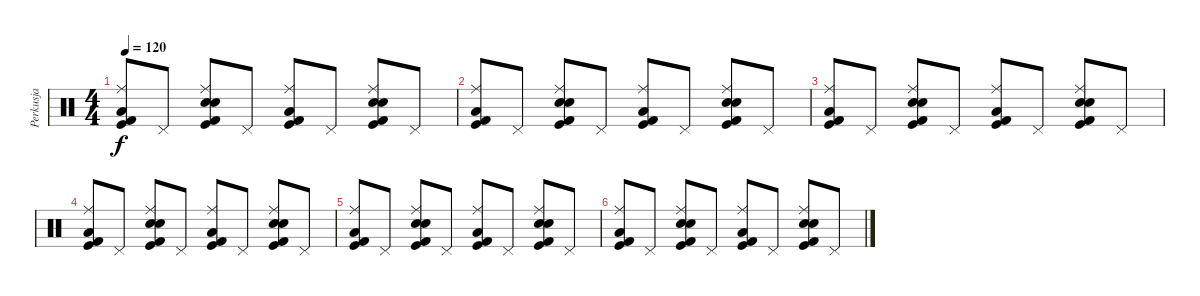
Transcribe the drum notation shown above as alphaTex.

\track ("Perkusja" "Perkusja") {instrument percussion}
\staff {score}
\articulation defaults
\ts (4 4)
\tempo 120
\clef neutral
\ks c
("Kick (hit) 2" "Kick (hit)" "Low Floor Tom (hit)" "Ride (middle)").8{dy f volume 8} "Pedal Hi-Hat (hit)".8 ("Kick (hit) 2" "Kick (hit)" "Snare (hit) 2" "Electric Snare (hit)" "Ride (middle)").8 "Pedal Hi-Hat (hit)".8 ("Kick (hit) 2" "Kick (hit)" "Low Floor Tom (hit)" "Ride (middle)").8{volume 6} "Pedal Hi-Hat (hit)".8 ("Kick (hit) 2" "Kick (hit)" "Snare (hit) 2" "Electric Snare (hit)" "Ride (middle)").8 "Pedal Hi-Hat (hit)".8 |
("Kick (hit) 2" "Kick (hit)" "Low Floor Tom (hit)" "Ride (middle)").8{volume 4} "Pedal Hi-Hat (hit)".8 ("Kick (hit) 2" "Kick (hit)" "Snare (hit) 2" "Electric Snare (hit)" "Ride (middle)").8 "Pedal Hi-Hat (hit)".8 ("Kick (hit) 2" "Kick (hit)" "Low Floor Tom (hit)" "Ride (middle)").8{volume 2} "Pedal Hi-Hat (hit)".8 ("Kick (hit) 2" "Kick (hit)" "Snare (hit) 2" "Electric Snare (hit)" "Ride (middle)").8 "Pedal Hi-Hat (hit)".8 |
("Kick (hit) 2" "Kick (hit)" "Low Floor Tom (hit)" "Ride (middle)").8{volume 0} "Pedal Hi-Hat (hit)".8 ("Kick (hit) 2" "Kick (hit)" "Snare (hit) 2" "Electric Snare (hit)" "Ride (middle)").8 "Pedal Hi-Hat (hit)".8 ("Kick (hit) 2" "Kick (hit)" "Low Floor Tom (hit)" "Ride (middle)").8 "Pedal Hi-Hat (hit)".8 ("Kick (hit) 2" "Kick (hit)" "Snare (hit) 2" "Electric Snare (hit)" "Ride (middle)").8 "Pedal Hi-Hat (hit)".8 |
("Kick (hit) 2" "Kick (hit)" "Low Floor Tom (hit)" "Ride (middle)").8 "Pedal Hi-Hat (hit)".8 ("Kick (hit) 2" "Kick (hit)" "Snare (hit) 2" "Electric Snare (hit)" "Ride (middle)").8 "Pedal Hi-Hat (hit)".8 ("Kick (hit) 2" "Kick (hit)" "Low Floor Tom (hit)" "Ride (middle)").8 "Pedal Hi-Hat (hit)".8 ("Kick (hit) 2" "Kick (hit)" "Snare (hit) 2" "Electric Snare (hit)" "Ride (middle)").8 "Pedal Hi-Hat (hit)".8 |
("Kick (hit) 2" "Kick (hit)" "Low Floor Tom (hit)" "Ride (middle)").8 "Pedal Hi-Hat (hit)".8 ("Kick (hit) 2" "Kick (hit)" "Snare (hit) 2" "Electric Snare (hit)" "Ride (middle)").8 "Pedal Hi-Hat (hit)".8 ("Kick (hit) 2" "Kick (hit)" "Low Floor Tom (hit)" "Ride (middle)").8 "Pedal Hi-Hat (hit)".8 ("Kick (hit) 2" "Kick (hit)" "Snare (hit) 2" "Electric Snare (hit)" "Ride (middle)").8 "Pedal Hi-Hat (hit)".8 |
("Kick (hit) 2" "Kick (hit)" "Low Floor Tom (hit)" "Ride (middle)").8 "Pedal Hi-Hat (hit)".8 ("Kick (hit) 2" "Kick (hit)" "Snare (hit) 2" "Electric Snare (hit)" "Ride (middle)").8 "Pedal Hi-Hat (hit)".8 ("Kick (hit) 2" "Kick (hit)" "Low Floor Tom (hit)" "Ride (middle)").8 "Pedal Hi-Hat (hit)".8 ("Kick (hit) 2" "Kick (hit)" "Snare (hit) 2" "Electric Snare (hit)" "Ride (middle)").8 "Pedal Hi-Hat (hit)".8
